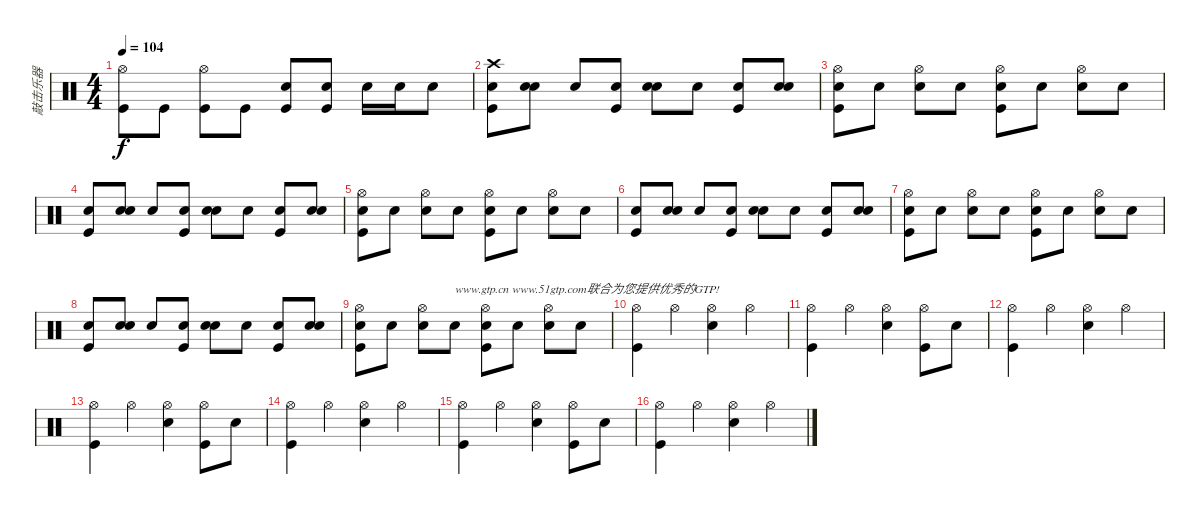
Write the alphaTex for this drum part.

\track ("敲击乐器" "敲击乐器") {instrument percussion}
\staff {score}
\articulation defaults
\ts (4 4)
\tempo 104
\clef neutral
\ks c
("Hi-Hat (open)" "Kick (hit)").8{dy f} "Kick (hit)".8 ("Hi-Hat (open)" "Kick (hit)").8 "Kick (hit)".8 ("Snare (hit) 2" "Kick (hit)").8 ("Snare (hit) 2" "Kick (hit)").8 "Electric Snare (hit)".16 "Snare (hit) 2".16 "Snare (hit) 2".8 |
("Crash high (hit)" "Snare (hit)" "Kick (hit)").8 ("Snare (hit) 2" "Snare (hit)").8 "Snare (hit)".8 ("Snare (hit)" "Kick (hit)").8 ("Snare (hit) 2" "Snare (hit)").8 "Snare (hit)".8 ("Snare (hit)" "Kick (hit)").8 ("Snare (hit) 2" "Snare (hit)").8 |
("Hi-Hat (open)" "Snare (hit)" "Kick (hit)").8 "Snare (hit)".8 ("Hi-Hat (open)" "Snare (hit)").8 "Snare (hit)".8 ("Hi-Hat (open)" "Snare (hit)" "Kick (hit)").8 "Snare (hit)".8 ("Hi-Hat (open)" "Snare (hit)").8 "Snare (hit)".8 |
("Snare (hit)" "Kick (hit)").8 ("Snare (hit) 2" "Snare (hit)").8 "Snare (hit)".8 ("Snare (hit)" "Kick (hit)").8 ("Snare (hit) 2" "Snare (hit)").8 "Snare (hit)".8 ("Snare (hit)" "Kick (hit)").8 ("Snare (hit) 2" "Snare (hit)").8 |
("Hi-Hat (open)" "Snare (hit)" "Kick (hit)").8 "Snare (hit)".8 ("Hi-Hat (open)" "Snare (hit)").8 "Snare (hit)".8 ("Hi-Hat (open)" "Snare (hit)" "Kick (hit)").8 "Snare (hit)".8 ("Hi-Hat (open)" "Snare (hit)").8 "Snare (hit)".8 |
("Snare (hit)" "Kick (hit)").8 ("Snare (hit) 2" "Snare (hit)").8 "Snare (hit)".8 ("Snare (hit)" "Kick (hit)").8 ("Snare (hit) 2" "Snare (hit)").8 "Snare (hit)".8 ("Snare (hit)" "Kick (hit)").8 ("Snare (hit) 2" "Snare (hit)").8 |
("Hi-Hat (open)" "Snare (hit)" "Kick (hit)").8 "Snare (hit)".8 ("Hi-Hat (open)" "Snare (hit)").8 "Snare (hit)".8 ("Hi-Hat (open)" "Snare (hit)" "Kick (hit)").8 "Snare (hit)".8 ("Hi-Hat (open)" "Snare (hit)").8 "Snare (hit)".8 |
("Snare (hit)" "Kick (hit)").8 ("Snare (hit) 2" "Snare (hit)").8 "Snare (hit)".8 ("Snare (hit)" "Kick (hit)").8 ("Snare (hit) 2" "Snare (hit)").8 "Snare (hit)".8 ("Snare (hit)" "Kick (hit)").8 ("Snare (hit) 2" "Snare (hit)").8 |
("Hi-Hat (open)" "Snare (hit)" "Kick (hit)").8 "Snare (hit)".8 ("Hi-Hat (open)" "Snare (hit)").8 "Snare (hit)".8{txt "www.gtp.cn www.51gtp.com联合为您提供优秀的GTP!"} ("Hi-Hat (open)" "Snare (hit)" "Kick (hit)").8 "Snare (hit)".8 ("Hi-Hat (open)" "Snare (hit)").8 "Snare (hit)".8 |
("Hi-Hat (open)" "Kick (hit)").4 "Hi-Hat (open)".4 ("Hi-Hat (open)" "Snare (hit) 2").4 "Hi-Hat (open)".4 |
("Hi-Hat (open)" "Kick (hit)").4 "Hi-Hat (open)".4 ("Hi-Hat (open)" "Snare (hit) 2").4 ("Hi-Hat (open)" "Kick (hit)").8 "Electric Snare (hit)".8 |
("Hi-Hat (open)" "Kick (hit)").4 "Hi-Hat (open)".4 ("Hi-Hat (open)" "Snare (hit) 2").4 "Hi-Hat (open)".4 |
("Hi-Hat (open)" "Kick (hit)").4 "Hi-Hat (open)".4 ("Hi-Hat (open)" "Snare (hit) 2").4 ("Hi-Hat (open)" "Kick (hit)").8 "Electric Snare (hit)".8 |
("Hi-Hat (open)" "Kick (hit)").4 "Hi-Hat (open)".4 ("Hi-Hat (open)" "Snare (hit) 2").4 "Hi-Hat (open)".4 |
("Hi-Hat (open)" "Kick (hit)").4 "Hi-Hat (open)".4 ("Hi-Hat (open)" "Snare (hit) 2").4 ("Hi-Hat (open)" "Kick (hit)").8 "Electric Snare (hit)".8 |
("Hi-Hat (open)" "Kick (hit)").4 "Hi-Hat (open)".4 ("Hi-Hat (open)" "Snare (hit) 2").4 "Hi-Hat (open)".4
